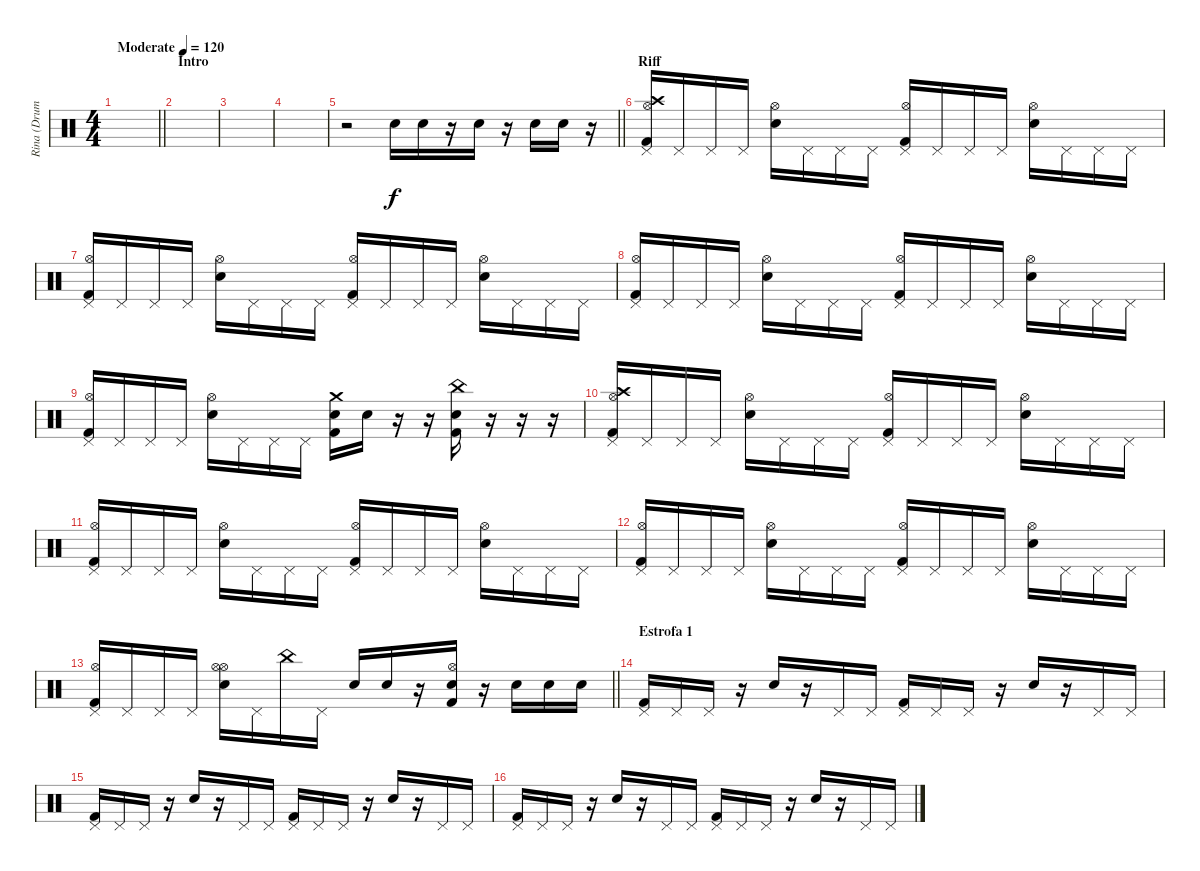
\track ("Rina (Drums)" "Rina (Drum") {instrument percussion}
\staff {score}
\articulation defaults
\ts (4 4)
\tempo (120 "Moderate")
\clef neutral
\barLineRight lightlight
\ks c
|
\section ("" "Intro")
|
|
|
\barLineRight lightlight
r.2 "Snare (hit) 2".16 "Snare (hit) 2".16 r.16 "Snare (hit) 2".16 r.16 "Snare (hit) 2".16 "Snare (hit) 2".16 r.16 |
\section ("" "Riff")
("Pedal Hi-Hat (hit)" "Crash high (hit)" "Hi-Hat (open)" "Kick (hit) 2").16 "Pedal Hi-Hat (hit)".16 "Pedal Hi-Hat (hit)".16 "Pedal Hi-Hat (hit)".16 ("Hi-Hat (open)" "Snare (hit) 2").16 "Pedal Hi-Hat (hit)".16 "Pedal Hi-Hat (hit)".16 "Pedal Hi-Hat (hit)".16 ("Pedal Hi-Hat (hit)" "Hi-Hat (open)" "Kick (hit) 2").16 "Pedal Hi-Hat (hit)".16 "Pedal Hi-Hat (hit)".16 "Pedal Hi-Hat (hit)".16 ("Hi-Hat (open)" "Snare (hit) 2").16 "Pedal Hi-Hat (hit)".16 "Pedal Hi-Hat (hit)".16 "Pedal Hi-Hat (hit)".16 |
("Pedal Hi-Hat (hit)" "Hi-Hat (open)" "Kick (hit) 2").16 "Pedal Hi-Hat (hit)".16 "Pedal Hi-Hat (hit)".16 "Pedal Hi-Hat (hit)".16 ("Hi-Hat (open)" "Snare (hit) 2").16 "Pedal Hi-Hat (hit)".16 "Pedal Hi-Hat (hit)".16 "Pedal Hi-Hat (hit)".16 ("Pedal Hi-Hat (hit)" "Hi-Hat (open)" "Kick (hit) 2").16 "Pedal Hi-Hat (hit)".16 "Pedal Hi-Hat (hit)".16 "Pedal Hi-Hat (hit)".16 ("Hi-Hat (open)" "Snare (hit) 2").16 "Pedal Hi-Hat (hit)".16 "Pedal Hi-Hat (hit)".16 "Pedal Hi-Hat (hit)".16 |
("Pedal Hi-Hat (hit)" "Hi-Hat (open)" "Kick (hit) 2").16 "Pedal Hi-Hat (hit)".16 "Pedal Hi-Hat (hit)".16 "Pedal Hi-Hat (hit)".16 ("Hi-Hat (open)" "Snare (hit) 2").16 "Pedal Hi-Hat (hit)".16 "Pedal Hi-Hat (hit)".16 "Pedal Hi-Hat (hit)".16 ("Pedal Hi-Hat (hit)" "Hi-Hat (open)" "Kick (hit) 2").16 "Pedal Hi-Hat (hit)".16 "Pedal Hi-Hat (hit)".16 "Pedal Hi-Hat (hit)".16 ("Hi-Hat (open)" "Snare (hit) 2").16 "Pedal Hi-Hat (hit)".16 "Pedal Hi-Hat (hit)".16 "Pedal Hi-Hat (hit)".16 |
("Pedal Hi-Hat (hit)" "Hi-Hat (open)" "Kick (hit) 2").16 "Pedal Hi-Hat (hit)".16 "Pedal Hi-Hat (hit)".16 "Pedal Hi-Hat (hit)".16 ("Hi-Hat (open)" "Snare (hit) 2").16 "Pedal Hi-Hat (hit)".16 "Pedal Hi-Hat (hit)".16 "Pedal Hi-Hat (hit)".16 ("Crash medium (hit)" "Snare (hit) 2" "Kick (hit) 2").16 "Snare (hit) 2".16 r.16 r.16 ("China (hit)" "Snare (hit) 2" "Kick (hit) 2").16 r.16 r.16 r.16 |
("Pedal Hi-Hat (hit)" "Hi-Hat (open)" "Crash high (hit)" "Kick (hit) 2").16 "Pedal Hi-Hat (hit)".16 "Pedal Hi-Hat (hit)".16 "Pedal Hi-Hat (hit)".16 ("Hi-Hat (open)" "Snare (hit) 2").16 "Pedal Hi-Hat (hit)".16 "Pedal Hi-Hat (hit)".16 "Pedal Hi-Hat (hit)".16 ("Pedal Hi-Hat (hit)" "Hi-Hat (open)" "Kick (hit) 2").16 "Pedal Hi-Hat (hit)".16 "Pedal Hi-Hat (hit)".16 "Pedal Hi-Hat (hit)".16 ("Hi-Hat (open)" "Snare (hit) 2").16 "Pedal Hi-Hat (hit)".16 "Pedal Hi-Hat (hit)".16 "Pedal Hi-Hat (hit)".16 |
("Pedal Hi-Hat (hit)" "Hi-Hat (open)" "Kick (hit) 2").16 "Pedal Hi-Hat (hit)".16 "Pedal Hi-Hat (hit)".16 "Pedal Hi-Hat (hit)".16 ("Hi-Hat (open)" "Snare (hit) 2").16 "Pedal Hi-Hat (hit)".16 "Pedal Hi-Hat (hit)".16 "Pedal Hi-Hat (hit)".16 ("Pedal Hi-Hat (hit)" "Hi-Hat (open)" "Kick (hit) 2").16 "Pedal Hi-Hat (hit)".16 "Pedal Hi-Hat (hit)".16 "Pedal Hi-Hat (hit)".16 ("Hi-Hat (open)" "Snare (hit) 2").16 "Pedal Hi-Hat (hit)".16 "Pedal Hi-Hat (hit)".16 "Pedal Hi-Hat (hit)".16 |
("Pedal Hi-Hat (hit)" "Hi-Hat (open)" "Kick (hit) 2").16 "Pedal Hi-Hat (hit)".16 "Pedal Hi-Hat (hit)".16 "Pedal Hi-Hat (hit)".16 ("Hi-Hat (open)" "Snare (hit) 2").16 "Pedal Hi-Hat (hit)".16 "Pedal Hi-Hat (hit)".16 "Pedal Hi-Hat (hit)".16 ("Pedal Hi-Hat (hit)" "Hi-Hat (open)" "Kick (hit) 2").16 "Pedal Hi-Hat (hit)".16 "Pedal Hi-Hat (hit)".16 "Pedal Hi-Hat (hit)".16 ("Hi-Hat (open)" "Snare (hit) 2").16 "Pedal Hi-Hat (hit)".16 "Pedal Hi-Hat (hit)".16 "Pedal Hi-Hat (hit)".16 |
\barLineRight lightlight
("Pedal Hi-Hat (hit)" "Hi-Hat (open)" "Kick (hit) 2").16 "Pedal Hi-Hat (hit)".16 "Pedal Hi-Hat (hit)".16 "Pedal Hi-Hat (hit)".16 ("Hi-Hat (open)" "Hi-Hat (open)" "Snare (hit) 2").16 "Pedal Hi-Hat (hit)".16 "China (hit)".16 "Pedal Hi-Hat (hit)".16 "Snare (hit) 2".16 "Snare (hit) 2".16 r.16 ("Hi-Hat (open)" "Snare (hit) 2" "Kick (hit) 2").16 r.16 "Snare (hit) 2".16 "Snare (hit) 2".16 "Snare (hit) 2".16 |
\section ("" "Estrofa 1")
("Pedal Hi-Hat (hit)" "Kick (hit) 2").16 "Pedal Hi-Hat (hit)".16 "Pedal Hi-Hat (hit)".16 r.16 "Snare (hit) 2".16 r.16 "Pedal Hi-Hat (hit)".16 "Pedal Hi-Hat (hit)".16 ("Pedal Hi-Hat (hit)" "Kick (hit) 2").16 "Pedal Hi-Hat (hit)".16 "Pedal Hi-Hat (hit)".16 r.16 "Snare (hit) 2".16 r.16 "Pedal Hi-Hat (hit)".16 "Pedal Hi-Hat (hit)".16 |
("Pedal Hi-Hat (hit)" "Kick (hit) 2").16 "Pedal Hi-Hat (hit)".16 "Pedal Hi-Hat (hit)".16 r.16 "Snare (hit) 2".16 r.16 "Pedal Hi-Hat (hit)".16 "Pedal Hi-Hat (hit)".16 ("Pedal Hi-Hat (hit)" "Kick (hit) 2").16 "Pedal Hi-Hat (hit)".16 "Pedal Hi-Hat (hit)".16 r.16 "Snare (hit) 2".16 r.16 "Pedal Hi-Hat (hit)".16 "Pedal Hi-Hat (hit)".16 |
("Pedal Hi-Hat (hit)" "Kick (hit) 2").16 "Pedal Hi-Hat (hit)".16 "Pedal Hi-Hat (hit)".16 r.16 "Snare (hit) 2".16 r.16 "Pedal Hi-Hat (hit)".16 "Pedal Hi-Hat (hit)".16 ("Pedal Hi-Hat (hit)" "Kick (hit) 2").16 "Pedal Hi-Hat (hit)".16 "Pedal Hi-Hat (hit)".16 r.16 "Snare (hit) 2".16 r.16 "Pedal Hi-Hat (hit)".16 "Pedal Hi-Hat (hit)".16
